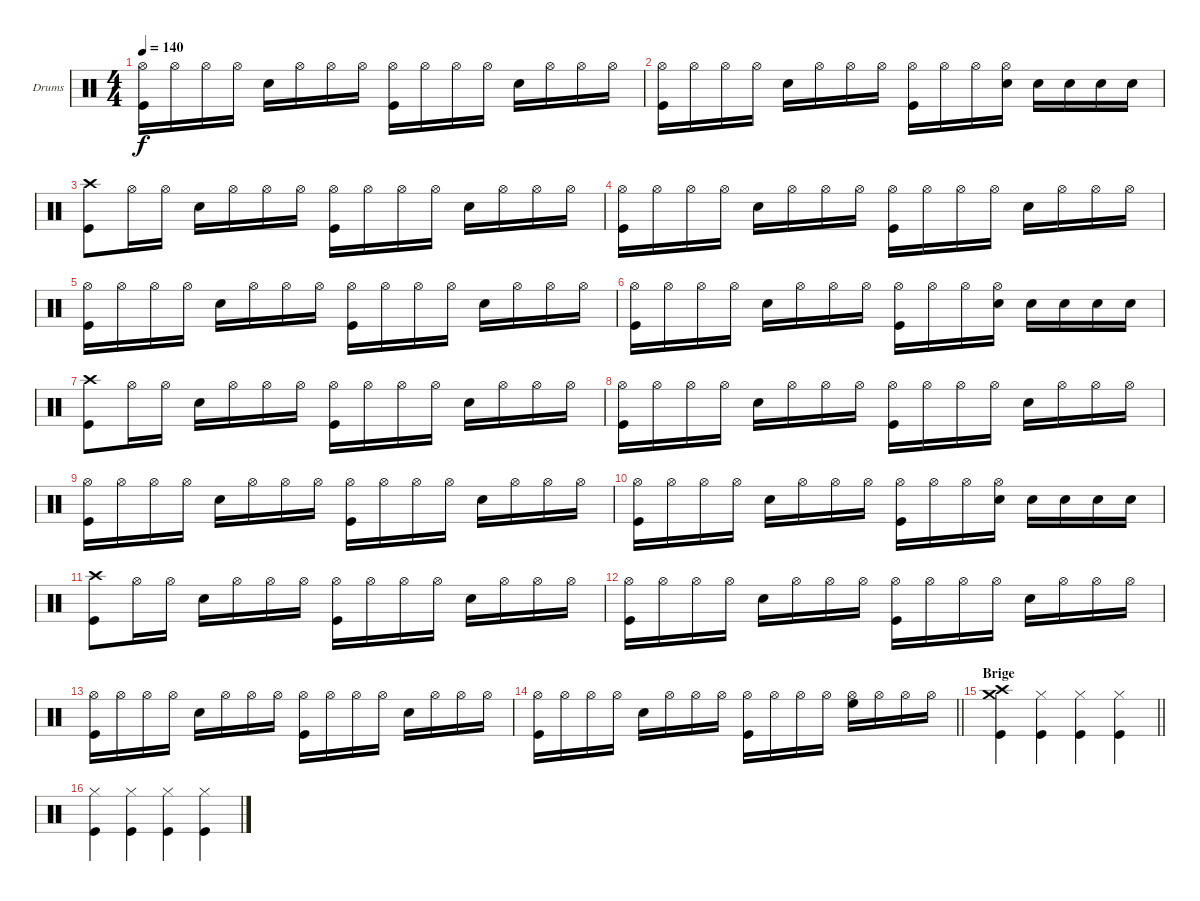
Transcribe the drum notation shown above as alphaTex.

\bracketExtendMode groupsimilarinstruments
\firstSystemTrackNameOrientation horizontal
\otherSystemsTrackNameOrientation horizontal
\track ("Drumkit" "Drums") {instrument percussion}
\staff {score}
\articulation defaults
\ts (4 4)
\tempo 140
\clef neutral
\ks c
("Hi-Hat (open)" "Kick (hit)").16{dy f} "Hi-Hat (open)".16 "Hi-Hat (open)".16 "Hi-Hat (open)".16 "Snare (hit) 2".16 "Hi-Hat (open)".16 "Hi-Hat (open)".16 "Hi-Hat (open)".16 ("Hi-Hat (open)" "Kick (hit)").16 "Hi-Hat (open)".16 "Hi-Hat (open)".16 "Hi-Hat (open)".16 "Snare (hit) 2".16 "Hi-Hat (open)".16 "Hi-Hat (open)".16 "Hi-Hat (open)".16 |
("Hi-Hat (open)" "Kick (hit)").16 "Hi-Hat (open)".16 "Hi-Hat (open)".16 "Hi-Hat (open)".16 "Snare (hit) 2".16 "Hi-Hat (open)".16 "Hi-Hat (open)".16 "Hi-Hat (open)".16 ("Hi-Hat (open)" "Kick (hit)").16 "Hi-Hat (open)".16 "Hi-Hat (open)".16 ("Hi-Hat (open)" "Snare (hit) 2").16 "Snare (hit) 2".16 "Snare (hit) 2".16 "Snare (hit) 2".16 "Snare (hit) 2".16 |
("Crash high (hit)" "Kick (hit)").8 "Hi-Hat (open)".16 "Hi-Hat (open)".16 "Snare (hit) 2".16 "Hi-Hat (open)".16 "Hi-Hat (open)".16 "Hi-Hat (open)".16 ("Hi-Hat (open)" "Kick (hit)").16 "Hi-Hat (open)".16 "Hi-Hat (open)".16 "Hi-Hat (open)".16 "Snare (hit) 2".16 "Hi-Hat (open)".16 "Hi-Hat (open)".16 "Hi-Hat (open)".16 |
("Hi-Hat (open)" "Kick (hit)").16 "Hi-Hat (open)".16 "Hi-Hat (open)".16 "Hi-Hat (open)".16 "Snare (hit) 2".16 "Hi-Hat (open)".16 "Hi-Hat (open)".16 "Hi-Hat (open)".16 ("Hi-Hat (open)" "Kick (hit)").16 "Hi-Hat (open)".16 "Hi-Hat (open)".16 "Hi-Hat (open)".16 "Snare (hit) 2".16 "Hi-Hat (open)".16 "Hi-Hat (open)".16 "Hi-Hat (open)".16 |
("Hi-Hat (open)" "Kick (hit)").16 "Hi-Hat (open)".16 "Hi-Hat (open)".16 "Hi-Hat (open)".16 "Snare (hit) 2".16 "Hi-Hat (open)".16 "Hi-Hat (open)".16 "Hi-Hat (open)".16 ("Hi-Hat (open)" "Kick (hit)").16 "Hi-Hat (open)".16 "Hi-Hat (open)".16 "Hi-Hat (open)".16 "Snare (hit) 2".16 "Hi-Hat (open)".16 "Hi-Hat (open)".16 "Hi-Hat (open)".16 |
("Hi-Hat (open)" "Kick (hit)").16 "Hi-Hat (open)".16 "Hi-Hat (open)".16 "Hi-Hat (open)".16 "Snare (hit) 2".16 "Hi-Hat (open)".16 "Hi-Hat (open)".16 "Hi-Hat (open)".16 ("Hi-Hat (open)" "Kick (hit)").16 "Hi-Hat (open)".16 "Hi-Hat (open)".16 ("Hi-Hat (open)" "Snare (hit) 2").16 "Snare (hit) 2".16 "Snare (hit) 2".16 "Snare (hit) 2".16 "Snare (hit) 2".16 |
("Crash high (hit)" "Kick (hit)").8 "Hi-Hat (open)".16 "Hi-Hat (open)".16 "Snare (hit) 2".16 "Hi-Hat (open)".16 "Hi-Hat (open)".16 "Hi-Hat (open)".16 ("Hi-Hat (open)" "Kick (hit)").16 "Hi-Hat (open)".16 "Hi-Hat (open)".16 "Hi-Hat (open)".16 "Snare (hit) 2".16 "Hi-Hat (open)".16 "Hi-Hat (open)".16 "Hi-Hat (open)".16 |
("Hi-Hat (open)" "Kick (hit)").16 "Hi-Hat (open)".16 "Hi-Hat (open)".16 "Hi-Hat (open)".16 "Snare (hit) 2".16 "Hi-Hat (open)".16 "Hi-Hat (open)".16 "Hi-Hat (open)".16 ("Hi-Hat (open)" "Kick (hit)").16 "Hi-Hat (open)".16 "Hi-Hat (open)".16 "Hi-Hat (open)".16 "Snare (hit) 2".16 "Hi-Hat (open)".16 "Hi-Hat (open)".16 "Hi-Hat (open)".16 |
("Hi-Hat (open)" "Kick (hit)").16 "Hi-Hat (open)".16 "Hi-Hat (open)".16 "Hi-Hat (open)".16 "Snare (hit) 2".16 "Hi-Hat (open)".16 "Hi-Hat (open)".16 "Hi-Hat (open)".16 ("Hi-Hat (open)" "Kick (hit)").16 "Hi-Hat (open)".16 "Hi-Hat (open)".16 "Hi-Hat (open)".16 "Snare (hit) 2".16 "Hi-Hat (open)".16 "Hi-Hat (open)".16 "Hi-Hat (open)".16 |
("Hi-Hat (open)" "Kick (hit)").16 "Hi-Hat (open)".16 "Hi-Hat (open)".16 "Hi-Hat (open)".16 "Snare (hit) 2".16 "Hi-Hat (open)".16 "Hi-Hat (open)".16 "Hi-Hat (open)".16 ("Hi-Hat (open)" "Kick (hit)").16 "Hi-Hat (open)".16 "Hi-Hat (open)".16 ("Hi-Hat (open)" "Snare (hit) 2").16 "Snare (hit) 2".16 "Snare (hit) 2".16 "Snare (hit) 2".16 "Snare (hit) 2".16 |
("Crash high (hit)" "Kick (hit)").8 "Hi-Hat (open)".16 "Hi-Hat (open)".16 "Snare (hit) 2".16 "Hi-Hat (open)".16 "Hi-Hat (open)".16 "Hi-Hat (open)".16 ("Hi-Hat (open)" "Kick (hit)").16 "Hi-Hat (open)".16 "Hi-Hat (open)".16 "Hi-Hat (open)".16 "Snare (hit) 2".16 "Hi-Hat (open)".16 "Hi-Hat (open)".16 "Hi-Hat (open)".16 |
("Hi-Hat (open)" "Kick (hit)").16 "Hi-Hat (open)".16 "Hi-Hat (open)".16 "Hi-Hat (open)".16 "Snare (hit) 2".16 "Hi-Hat (open)".16 "Hi-Hat (open)".16 "Hi-Hat (open)".16 ("Hi-Hat (open)" "Kick (hit)").16 "Hi-Hat (open)".16 "Hi-Hat (open)".16 "Hi-Hat (open)".16 "Snare (hit) 2".16 "Hi-Hat (open)".16 "Hi-Hat (open)".16 "Hi-Hat (open)".16 |
("Hi-Hat (open)" "Kick (hit)").16 "Hi-Hat (open)".16 "Hi-Hat (open)".16 "Hi-Hat (open)".16 "Snare (hit) 2".16 "Hi-Hat (open)".16 "Hi-Hat (open)".16 "Hi-Hat (open)".16 ("Hi-Hat (open)" "Kick (hit)").16 "Hi-Hat (open)".16 "Hi-Hat (open)".16 "Hi-Hat (open)".16 "Snare (hit) 2".16 "Hi-Hat (open)".16 "Hi-Hat (open)".16 "Hi-Hat (open)".16 |
\barLineRight lightlight
("Hi-Hat (open)" "Kick (hit)").16 "Hi-Hat (open)".16 "Hi-Hat (open)".16 "Hi-Hat (open)".16 "Snare (hit) 2".16 "Hi-Hat (open)".16 "Hi-Hat (open)".16 "Hi-Hat (open)".16 ("Hi-Hat (open)" "Kick (hit)").16 "Hi-Hat (open)".16 "Hi-Hat (open)".16 "Hi-Hat (open)".16 ("Hi-Hat (open)" "High Floor Tom (hit)").16 "Hi-Hat (open)".16 "Hi-Hat (open)".16 "Hi-Hat (open)".16 |
\section ("" "Brige")
\barLineRight lightlight
("Crash high (hit)" "Crash medium (hit)" "Kick (hit)").4 ("Hi-Hat (closed)" "Kick (hit)").4 ("Hi-Hat (closed)" "Kick (hit)").4 ("Hi-Hat (closed)" "Kick (hit)").4 |
("Hi-Hat (closed)" "Kick (hit)").4 ("Hi-Hat (closed)" "Kick (hit)").4 ("Hi-Hat (closed)" "Kick (hit)").4 ("Hi-Hat (closed)" "Kick (hit)").4
